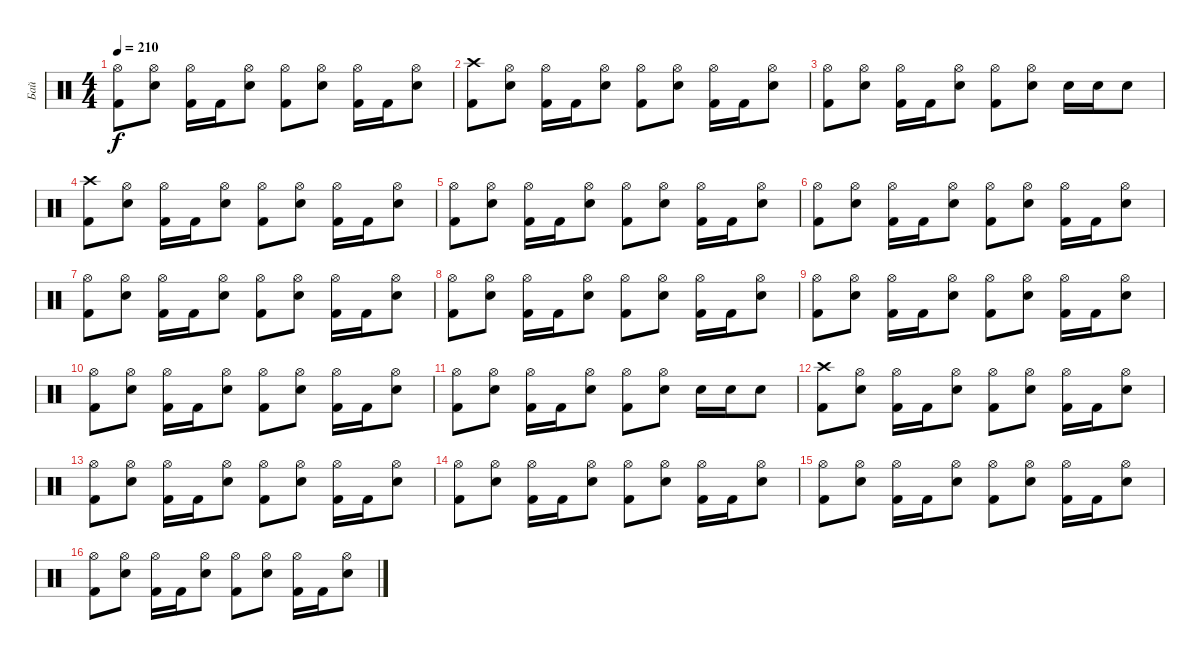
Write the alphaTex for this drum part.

\track ("Бай" "Бай") {instrument percussion}
\staff {score}
\articulation defaults
\ts (4 4)
\tempo 210
\clef neutral
\ks c
("Hi-Hat (open)" "Kick (hit) 2").8{dy f} ("Hi-Hat (open)" "Electric Snare (hit)").8 ("Hi-Hat (open)" "Kick (hit) 2").16 "Kick (hit) 2".16 ("Hi-Hat (open)" "Electric Snare (hit)").8 ("Hi-Hat (open)" "Kick (hit) 2").8 ("Hi-Hat (open)" "Electric Snare (hit)").8 ("Hi-Hat (open)" "Kick (hit) 2").16 "Kick (hit) 2".16 ("Hi-Hat (open)" "Electric Snare (hit)").8 |
("Crash high (hit)" "Kick (hit) 2").8 ("Hi-Hat (open)" "Electric Snare (hit)").8 ("Hi-Hat (open)" "Kick (hit) 2").16 "Kick (hit) 2".16 ("Hi-Hat (open)" "Electric Snare (hit)").8 ("Hi-Hat (open)" "Kick (hit) 2").8 ("Hi-Hat (open)" "Electric Snare (hit)").8 ("Hi-Hat (open)" "Kick (hit) 2").16 "Kick (hit) 2".16 ("Hi-Hat (open)" "Electric Snare (hit)").8 |
("Hi-Hat (open)" "Kick (hit) 2").8 ("Hi-Hat (open)" "Electric Snare (hit)").8 ("Hi-Hat (open)" "Kick (hit) 2").16 "Kick (hit) 2".16 ("Hi-Hat (open)" "Electric Snare (hit)").8 ("Hi-Hat (open)" "Kick (hit) 2").8 ("Hi-Hat (open)" "Electric Snare (hit)").8 "Electric Snare (hit)".16 "Electric Snare (hit)".16 "Electric Snare (hit)".8 |
("Crash high (hit)" "Kick (hit) 2").8 ("Hi-Hat (open)" "Electric Snare (hit)").8 ("Hi-Hat (open)" "Kick (hit) 2").16 "Kick (hit) 2".16 ("Hi-Hat (open)" "Electric Snare (hit)").8 ("Hi-Hat (open)" "Kick (hit) 2").8 ("Hi-Hat (open)" "Electric Snare (hit)").8 ("Hi-Hat (open)" "Kick (hit) 2").16 "Kick (hit) 2".16 ("Hi-Hat (open)" "Electric Snare (hit)").8 |
("Hi-Hat (open)" "Kick (hit) 2").8 ("Hi-Hat (open)" "Electric Snare (hit)").8 ("Hi-Hat (open)" "Kick (hit) 2").16 "Kick (hit) 2".16 ("Hi-Hat (open)" "Electric Snare (hit)").8 ("Hi-Hat (open)" "Kick (hit) 2").8 ("Hi-Hat (open)" "Electric Snare (hit)").8 ("Hi-Hat (open)" "Kick (hit) 2").16 "Kick (hit) 2".16 ("Hi-Hat (open)" "Electric Snare (hit)").8 |
("Hi-Hat (open)" "Kick (hit) 2").8 ("Hi-Hat (open)" "Electric Snare (hit)").8 ("Hi-Hat (open)" "Kick (hit) 2").16 "Kick (hit) 2".16 ("Hi-Hat (open)" "Electric Snare (hit)").8 ("Hi-Hat (open)" "Kick (hit) 2").8 ("Hi-Hat (open)" "Electric Snare (hit)").8 ("Hi-Hat (open)" "Kick (hit) 2").16 "Kick (hit) 2".16 ("Hi-Hat (open)" "Electric Snare (hit)").8 |
("Hi-Hat (open)" "Kick (hit) 2").8 ("Hi-Hat (open)" "Electric Snare (hit)").8 ("Hi-Hat (open)" "Kick (hit) 2").16 "Kick (hit) 2".16 ("Hi-Hat (open)" "Electric Snare (hit)").8 ("Hi-Hat (open)" "Kick (hit) 2").8 ("Hi-Hat (open)" "Electric Snare (hit)").8 ("Hi-Hat (open)" "Kick (hit) 2").16 "Kick (hit) 2".16 ("Hi-Hat (open)" "Electric Snare (hit)").8 |
("Hi-Hat (open)" "Kick (hit) 2").8 ("Hi-Hat (open)" "Electric Snare (hit)").8 ("Hi-Hat (open)" "Kick (hit) 2").16 "Kick (hit) 2".16 ("Hi-Hat (open)" "Electric Snare (hit)").8 ("Hi-Hat (open)" "Kick (hit) 2").8 ("Hi-Hat (open)" "Electric Snare (hit)").8 ("Hi-Hat (open)" "Kick (hit) 2").16 "Kick (hit) 2".16 ("Hi-Hat (open)" "Electric Snare (hit)").8 |
("Hi-Hat (open)" "Kick (hit) 2").8 ("Hi-Hat (open)" "Electric Snare (hit)").8 ("Hi-Hat (open)" "Kick (hit) 2").16 "Kick (hit) 2".16 ("Hi-Hat (open)" "Electric Snare (hit)").8 ("Hi-Hat (open)" "Kick (hit) 2").8 ("Hi-Hat (open)" "Electric Snare (hit)").8 ("Hi-Hat (open)" "Kick (hit) 2").16 "Kick (hit) 2".16 ("Hi-Hat (open)" "Electric Snare (hit)").8 |
("Hi-Hat (open)" "Kick (hit) 2").8 ("Hi-Hat (open)" "Electric Snare (hit)").8 ("Hi-Hat (open)" "Kick (hit) 2").16 "Kick (hit) 2".16 ("Hi-Hat (open)" "Electric Snare (hit)").8 ("Hi-Hat (open)" "Kick (hit) 2").8 ("Hi-Hat (open)" "Electric Snare (hit)").8 ("Hi-Hat (open)" "Kick (hit) 2").16 "Kick (hit) 2".16 ("Hi-Hat (open)" "Electric Snare (hit)").8 |
("Hi-Hat (open)" "Kick (hit) 2").8 ("Hi-Hat (open)" "Electric Snare (hit)").8 ("Hi-Hat (open)" "Kick (hit) 2").16 "Kick (hit) 2".16 ("Hi-Hat (open)" "Electric Snare (hit)").8 ("Hi-Hat (open)" "Kick (hit) 2").8 ("Hi-Hat (open)" "Electric Snare (hit)").8 "Electric Snare (hit)".16 "Electric Snare (hit)".16 "Electric Snare (hit)".8 |
("Crash high (hit)" "Kick (hit) 2").8 ("Hi-Hat (open)" "Electric Snare (hit)").8 ("Hi-Hat (open)" "Kick (hit) 2").16 "Kick (hit) 2".16 ("Hi-Hat (open)" "Electric Snare (hit)").8 ("Hi-Hat (open)" "Kick (hit) 2").8 ("Hi-Hat (open)" "Electric Snare (hit)").8 ("Hi-Hat (open)" "Kick (hit) 2").16 "Kick (hit) 2".16 ("Hi-Hat (open)" "Electric Snare (hit)").8 |
("Hi-Hat (open)" "Kick (hit) 2").8 ("Hi-Hat (open)" "Electric Snare (hit)").8 ("Hi-Hat (open)" "Kick (hit) 2").16 "Kick (hit) 2".16 ("Hi-Hat (open)" "Electric Snare (hit)").8 ("Hi-Hat (open)" "Kick (hit) 2").8 ("Hi-Hat (open)" "Electric Snare (hit)").8 ("Hi-Hat (open)" "Kick (hit) 2").16 "Kick (hit) 2".16 ("Hi-Hat (open)" "Electric Snare (hit)").8 |
("Hi-Hat (open)" "Kick (hit) 2").8 ("Hi-Hat (open)" "Electric Snare (hit)").8 ("Hi-Hat (open)" "Kick (hit) 2").16 "Kick (hit) 2".16 ("Hi-Hat (open)" "Electric Snare (hit)").8 ("Hi-Hat (open)" "Kick (hit) 2").8 ("Hi-Hat (open)" "Electric Snare (hit)").8 ("Hi-Hat (open)" "Kick (hit) 2").16 "Kick (hit) 2".16 ("Hi-Hat (open)" "Electric Snare (hit)").8 |
("Hi-Hat (open)" "Kick (hit) 2").8 ("Hi-Hat (open)" "Electric Snare (hit)").8 ("Hi-Hat (open)" "Kick (hit) 2").16 "Kick (hit) 2".16 ("Hi-Hat (open)" "Electric Snare (hit)").8 ("Hi-Hat (open)" "Kick (hit) 2").8 ("Hi-Hat (open)" "Electric Snare (hit)").8 ("Hi-Hat (open)" "Kick (hit) 2").16 "Kick (hit) 2".16 ("Hi-Hat (open)" "Electric Snare (hit)").8 |
("Hi-Hat (open)" "Kick (hit) 2").8 ("Hi-Hat (open)" "Electric Snare (hit)").8 ("Hi-Hat (open)" "Kick (hit) 2").16 "Kick (hit) 2".16 ("Hi-Hat (open)" "Electric Snare (hit)").8 ("Hi-Hat (open)" "Kick (hit) 2").8 ("Hi-Hat (open)" "Electric Snare (hit)").8 ("Hi-Hat (open)" "Kick (hit) 2").16 "Kick (hit) 2".16 ("Hi-Hat (open)" "Electric Snare (hit)").8
